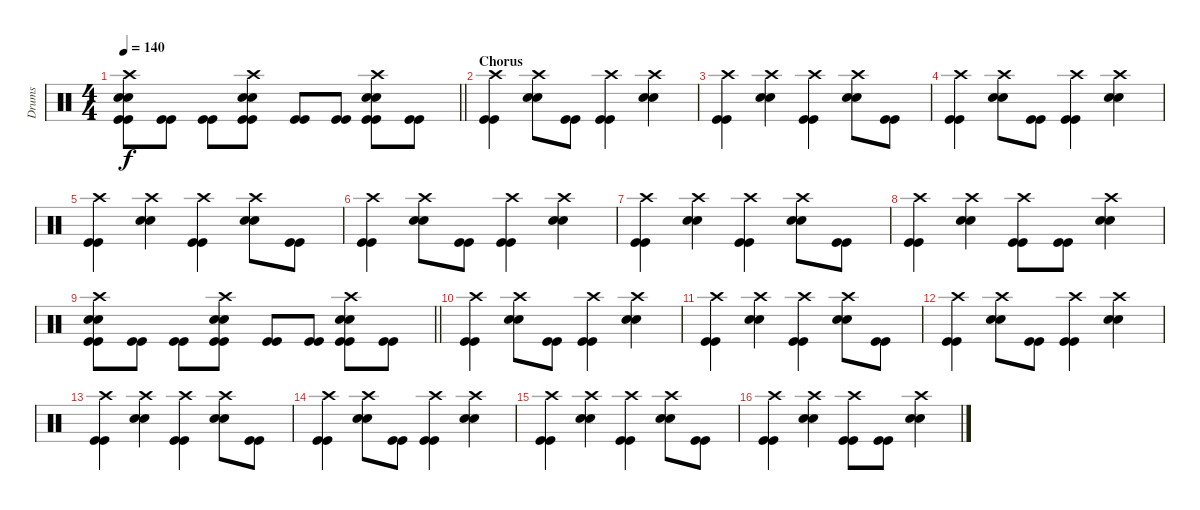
\track ("Drums" "Drums") {instrument percussion}
\staff {score}
\articulation defaults
\ts (4 4)
\tempo 140
\clef neutral
\barLineRight lightlight
\ks c
("Crash high (hit)" "Snare (hit) 2" "Snare (hit) 2" "Kick (hit)" "Kick (hit)").8{dy f} ("Kick (hit)" "Kick (hit)").8 ("Kick (hit)" "Kick (hit)").8 ("Crash high (hit)" "Snare (hit) 2" "Snare (hit) 2" "Kick (hit)" "Kick (hit)").8 ("Kick (hit)" "Kick (hit)").8 ("Kick (hit)" "Kick (hit)").8 ("Crash high (hit)" "Snare (hit) 2" "Snare (hit) 2" "Kick (hit)" "Kick (hit)").8 ("Kick (hit)" "Kick (hit)").8 |
\section ("" "Chorus")
("Crash high (hit)" "Kick (hit)" "Kick (hit)").4 ("Crash high (hit)" "Snare (hit) 2" "Snare (hit) 2").8 ("Kick (hit)" "Kick (hit)").8 ("Crash high (hit)" "Kick (hit)" "Kick (hit)").4 ("Crash high (hit)" "Snare (hit) 2" "Snare (hit) 2").4 |
("Crash high (hit)" "Kick (hit)" "Kick (hit)").4 ("Crash high (hit)" "Snare (hit) 2" "Snare (hit) 2").4 ("Crash high (hit)" "Kick (hit)" "Kick (hit)").4 ("Crash high (hit)" "Snare (hit) 2" "Snare (hit) 2").8 ("Kick (hit)" "Kick (hit)").8 |
("Crash high (hit)" "Kick (hit)" "Kick (hit)").4 ("Crash high (hit)" "Snare (hit) 2" "Snare (hit) 2").8 ("Kick (hit)" "Kick (hit)").8 ("Crash high (hit)" "Kick (hit)" "Kick (hit)").4 ("Crash high (hit)" "Snare (hit) 2" "Snare (hit) 2").4 |
("Crash high (hit)" "Kick (hit)" "Kick (hit)").4 ("Crash high (hit)" "Snare (hit) 2" "Snare (hit) 2").4 ("Crash high (hit)" "Kick (hit)" "Kick (hit)").4 ("Crash high (hit)" "Snare (hit) 2" "Snare (hit) 2").8 ("Kick (hit)" "Kick (hit)").8 |
("Crash high (hit)" "Kick (hit)" "Kick (hit)").4 ("Crash high (hit)" "Snare (hit) 2" "Snare (hit) 2").8 ("Kick (hit)" "Kick (hit)").8 ("Crash high (hit)" "Kick (hit)" "Kick (hit)").4 ("Crash high (hit)" "Snare (hit) 2" "Snare (hit) 2").4 |
("Crash high (hit)" "Kick (hit)" "Kick (hit)").4 ("Crash high (hit)" "Snare (hit) 2" "Snare (hit) 2").4 ("Crash high (hit)" "Kick (hit)" "Kick (hit)").4 ("Crash high (hit)" "Snare (hit) 2" "Snare (hit) 2").8 ("Kick (hit)" "Kick (hit)").8 |
("Crash high (hit)" "Kick (hit)" "Kick (hit)").4 ("Crash high (hit)" "Snare (hit) 2" "Snare (hit) 2").4 ("Crash high (hit)" "Kick (hit)" "Kick (hit)").8 ("Kick (hit)" "Kick (hit)").8 ("Crash high (hit)" "Snare (hit) 2" "Snare (hit) 2").4 |
\barLineRight lightlight
("Crash high (hit)" "Snare (hit) 2" "Snare (hit) 2" "Kick (hit)" "Kick (hit)").8 ("Kick (hit)" "Kick (hit)").8 ("Kick (hit)" "Kick (hit)").8 ("Crash high (hit)" "Snare (hit) 2" "Snare (hit) 2" "Kick (hit)" "Kick (hit)").8 ("Kick (hit)" "Kick (hit)").8 ("Kick (hit)" "Kick (hit)").8 ("Crash high (hit)" "Snare (hit) 2" "Snare (hit) 2" "Kick (hit)" "Kick (hit)").8 ("Kick (hit)" "Kick (hit)").8 |
("Crash high (hit)" "Kick (hit)" "Kick (hit)").4 ("Crash high (hit)" "Snare (hit) 2" "Snare (hit) 2").8 ("Kick (hit)" "Kick (hit)").8 ("Crash high (hit)" "Kick (hit)" "Kick (hit)").4 ("Crash high (hit)" "Snare (hit) 2" "Snare (hit) 2").4 |
("Crash high (hit)" "Kick (hit)" "Kick (hit)").4 ("Crash high (hit)" "Snare (hit) 2" "Snare (hit) 2").4 ("Crash high (hit)" "Kick (hit)" "Kick (hit)").4 ("Crash high (hit)" "Snare (hit) 2" "Snare (hit) 2").8 ("Kick (hit)" "Kick (hit)").8 |
("Crash high (hit)" "Kick (hit)" "Kick (hit)").4 ("Crash high (hit)" "Snare (hit) 2" "Snare (hit) 2").8 ("Kick (hit)" "Kick (hit)").8 ("Crash high (hit)" "Kick (hit)" "Kick (hit)").4 ("Crash high (hit)" "Snare (hit) 2" "Snare (hit) 2").4 |
("Crash high (hit)" "Kick (hit)" "Kick (hit)").4 ("Crash high (hit)" "Snare (hit) 2" "Snare (hit) 2").4 ("Crash high (hit)" "Kick (hit)" "Kick (hit)").4 ("Crash high (hit)" "Snare (hit) 2" "Snare (hit) 2").8 ("Kick (hit)" "Kick (hit)").8 |
("Crash high (hit)" "Kick (hit)" "Kick (hit)").4 ("Crash high (hit)" "Snare (hit) 2" "Snare (hit) 2").8 ("Kick (hit)" "Kick (hit)").8 ("Crash high (hit)" "Kick (hit)" "Kick (hit)").4 ("Crash high (hit)" "Snare (hit) 2" "Snare (hit) 2").4 |
("Crash high (hit)" "Kick (hit)" "Kick (hit)").4 ("Crash high (hit)" "Snare (hit) 2" "Snare (hit) 2").4 ("Crash high (hit)" "Kick (hit)" "Kick (hit)").4 ("Crash high (hit)" "Snare (hit) 2" "Snare (hit) 2").8 ("Kick (hit)" "Kick (hit)").8 |
("Crash high (hit)" "Kick (hit)" "Kick (hit)").4 ("Crash high (hit)" "Snare (hit) 2" "Snare (hit) 2").4 ("Crash high (hit)" "Kick (hit)" "Kick (hit)").8 ("Kick (hit)" "Kick (hit)").8 ("Crash high (hit)" "Snare (hit) 2" "Snare (hit) 2").4
